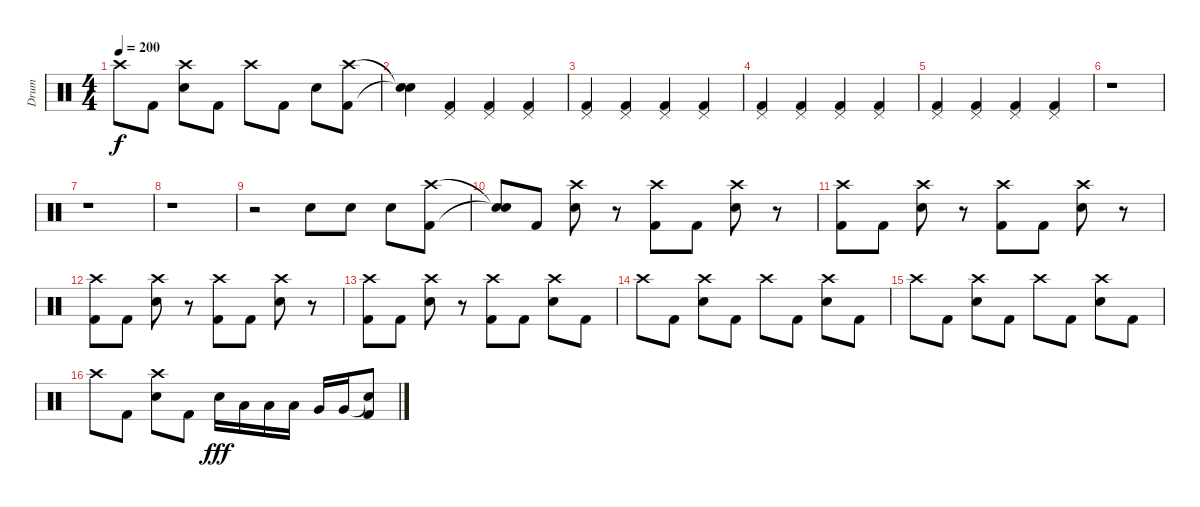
\track ("Drum" "Drum") {instrument percussion}
\staff {score}
\articulation defaults
\ts (4 4)
\tempo 200
\clef neutral
\ks c "Crash high (hit)".8{dy f} "Kick (hit) 2".8
("Crash high (hit)" "Electric Snare (hit)").8 "Kick (hit) 2".8 "Crash high (hit)".8 "Kick (hit) 2".8 "Electric Snare (hit)".8 ("Crash high (hit)" "Kick (hit) 2").8 |
("Snare (hit)"{t} "Snare (hit)"{t}).4 ("Pedal Hi-Hat (hit)" "Kick (hit) 2").4 ("Pedal Hi-Hat (hit)" "Kick (hit) 2").4 ("Pedal Hi-Hat (hit)" "Kick (hit) 2").4 |
("Pedal Hi-Hat (hit)" "Kick (hit) 2").4 ("Pedal Hi-Hat (hit)" "Kick (hit) 2").4 ("Pedal Hi-Hat (hit)" "Kick (hit) 2").4 ("Pedal Hi-Hat (hit)" "Kick (hit) 2").4 |
("Pedal Hi-Hat (hit)" "Kick (hit) 2").4 ("Pedal Hi-Hat (hit)" "Kick (hit) 2").4 ("Pedal Hi-Hat (hit)" "Kick (hit) 2").4 ("Pedal Hi-Hat (hit)" "Kick (hit) 2").4 |
("Pedal Hi-Hat (hit)" "Kick (hit) 2").4 ("Pedal Hi-Hat (hit)" "Kick (hit) 2").4 ("Pedal Hi-Hat (hit)" "Kick (hit) 2").4 ("Pedal Hi-Hat (hit)" "Kick (hit) 2").4 |
r.1 |
r.1 |
r.1 |
r.2 "Electric Snare (hit)".8 "Electric Snare (hit)".8 "Electric Snare (hit)".8 ("Crash high (hit)" "Kick (hit) 2").8 |
("Snare (hit)"{t} "Snare (hit)"{t}).8 "Kick (hit) 2".8 ("Crash high (hit)" "Electric Snare (hit)").8 r.8 ("Crash high (hit)" "Kick (hit) 2").8 "Kick (hit) 2".8 ("Crash high (hit)" "Electric Snare (hit)").8 r.8 |
("Crash high (hit)" "Kick (hit) 2").8 "Kick (hit) 2".8 ("Crash high (hit)" "Electric Snare (hit)").8 r.8 ("Crash high (hit)" "Kick (hit) 2").8 "Kick (hit) 2".8 ("Crash high (hit)" "Electric Snare (hit)").8 r.8 |
("Crash high (hit)" "Kick (hit) 2").8 "Kick (hit) 2".8 ("Crash high (hit)" "Electric Snare (hit)").8 r.8 ("Crash high (hit)" "Kick (hit) 2").8 "Kick (hit) 2".8 ("Crash high (hit)" "Electric Snare (hit)").8 r.8 |
("Crash high (hit)" "Kick (hit) 2").8 "Kick (hit) 2".8 ("Crash high (hit)" "Electric Snare (hit)").8 r.8 ("Crash high (hit)" "Kick (hit) 2").8 "Kick (hit) 2".8 ("Crash high (hit)" "Electric Snare (hit)").8 "Kick (hit) 2".8 |
"Crash high (hit)".8 "Kick (hit) 2".8 ("Crash high (hit)" "Electric Snare (hit)").8 "Kick (hit) 2".8 "Crash high (hit)".8 "Kick (hit) 2".8 ("Crash high (hit)" "Electric Snare (hit)").8 "Kick (hit) 2".8 |
"Crash high (hit)".8 "Kick (hit) 2".8 ("Crash high (hit)" "Electric Snare (hit)").8 "Kick (hit) 2".8 "Crash high (hit)".8 "Kick (hit) 2".8 ("Crash high (hit)" "Electric Snare (hit)").8 "Kick (hit) 2".8 |
"Crash high (hit)".8 "Kick (hit) 2".8 ("Crash high (hit)" "Electric Snare (hit)").8 "Kick (hit) 2".8 "Electric Snare (hit)".16{dy fff} "Low Tom (hit)".16 "Low Tom (hit)".16 "Low Tom (hit)".16 "Very Low Tom (hit)".16 "Very Low Tom (hit)".16 ("Snare (hit)"{t} "Kick (hit) 2").8
